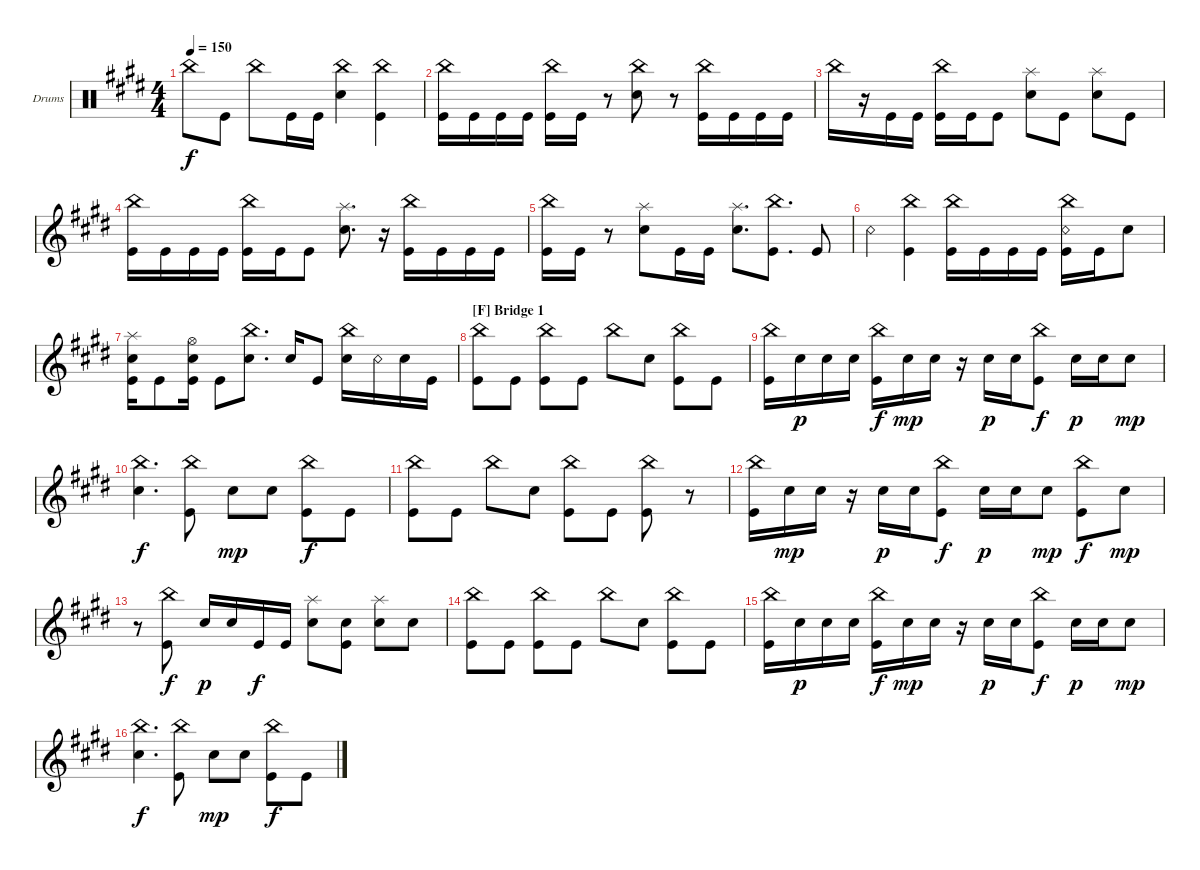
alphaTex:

\bracketExtendMode groupsimilarinstruments
\firstSystemTrackNameOrientation horizontal
\otherSystemsTrackNameOrientation horizontal
\track ("Drums" "Drums") {instrument percussion}
\staff {score}
\articulation defaults
\ts (4 4)
\tempo 150
\clef neutral
\ks e "China (hit)".8{dy f} "Kick (hit)".8 "China (hit)".8 "Kick (hit)".16 "Kick (hit)".16
("China (hit)" "Snare (hit) 2").4 ("China (hit)" "Kick (hit)").4 |
("Kick (hit)" "China (hit)").16 "Kick (hit)".16 "Kick (hit)".16 "Kick (hit)".16 ("Kick (hit)" "China (hit)").16 "Kick (hit)".16 r.8 ("Snare (hit) 2" "China (hit)").8 r.8 ("Kick (hit)" "China (hit)").16 "Kick (hit)".16 "Kick (hit)".16 "Kick (hit)".16 |
"China (hit)".16 r.16 "Kick (hit)".16 "Kick (hit)".16 ("Kick (hit)" "China (hit)").16 "Kick (hit)".16 "Kick (hit)".8 ("Snare (hit) 2" "Splash (hit)").8 "Kick (hit)".8 ("Snare (hit) 2" "Splash (hit)").8 "Kick (hit)".8 |
\clef g2
("Kick (hit)" "China (hit)").16 "Kick (hit)".16 "Kick (hit)".16 "Kick (hit)".16 ("Kick (hit)" "China (hit)").16 "Kick (hit)".16 "Kick (hit)".8 ("Snare (hit) 2" "Splash (hit)").8{d} r.16 ("Kick (hit)" "China (hit)").16 "Kick (hit)".16 "Kick (hit)".16 "Kick (hit)".16 |
("Kick (hit)" "China (hit)").16 "Kick (hit)".16 r.8 ("Snare (hit) 2" "Splash (hit)").8 "Kick (hit)".16 "Kick (hit)".16 ("Snare (hit) 2" "Splash (hit)").8{d} ("Kick (hit)" "China (hit)").8{d} "Kick (hit)".8 |
"Snare (rim shot)".4 ("Kick (hit)" "China (hit)").4 ("Kick (hit)" "China (hit)").16 "Kick (hit)".16 "Kick (hit)".16 "Kick (hit)".16 ("Kick (hit)" "China (hit)" "Snare (rim shot)").16 "Kick (hit)".16 "Snare (hit) 2".8 |
("Snare (hit) 2" "Splash (hit)" "Kick (hit)").16 "Kick (hit)".8 ("Snare (hit) 2" "Hi-Hat (open)" "Kick (hit)").16 "Kick (hit)".8 ("Snare (hit) 2" "China (hit)").8{d} "Snare (hit) 2".16 "Kick (hit)".8 ("Snare (hit) 2" "China (hit)").16 "Snare (rim shot)".16 "Snare (hit) 2".16 "Kick (hit)".16 |
\section ("F" "Bridge 1")
\scale
0.365079 ("Kick (hit)" "China (hit)").8 "Kick (hit)".8 ("Kick (hit)" "China (hit)").8 "Kick (hit)".8 "China (hit)".8 "Snare (hit) 2".8 ("Kick (hit)" "China (hit)").8 "Kick (hit)".8 |
\scale
0.301587 ("Kick (hit)" "China (hit)").16 "Snare (hit) 2".16{dy p} "Snare (hit) 2".16 "Snare (hit) 2".16 ("Kick (hit)" "China (hit)").16{dy f} "Snare (hit) 2".16{dy mp} "Snare (hit) 2".16 r.16 "Snare (hit) 2".16{dy p} "Snare (hit) 2".16 ("Kick (hit)" "China (hit)").8{dy f} "Snare (hit) 2".16{dy p} "Snare (hit) 2".16 "Snare (hit) 2".8{dy mp} |
\scale
0.333333 ("China (hit)" "Snare (hit) 2").4{d dy f} ("Kick (hit)" "China (hit)").8 "Snare (hit) 2".8{dy mp} "Snare (hit) 2".8 ("Kick (hit)" "China (hit)").8{dy f} "Kick (hit)".8 |
\scale
0.333333 ("Kick (hit)" "China (hit)").8 "Kick (hit)".8 "China (hit)".8 "Snare (hit) 2".8 ("Kick (hit)" "China (hit)").8 "Kick (hit)".8 ("Kick (hit)" "China (hit)").8 r.8 |
\scale
0.333333 ("Kick (hit)" "China (hit)").16 "Snare (hit) 2".16{dy mp} "Snare (hit) 2".16 r.16 "Snare (hit) 2".16{dy p} "Snare (hit) 2".16 ("Kick (hit)" "China (hit)").8{dy f} "Snare (hit) 2".16{dy p} "Snare (hit) 2".16 "Snare (hit) 2".8{dy mp} ("Kick (hit)" "China (hit)").8{dy f} "Snare (hit) 2".8{dy mp} |
\scale
0.184751 r.8 ("Kick (hit)" "China (hit)").8{dy f} "Snare (hit) 2".16{dy p} "Snare (hit) 2".16 "Kick (hit)".16{dy f} "Kick (hit)".16 ("Snare (hit) 2" "Splash (hit)").8 ("Snare (hit) 2" "Kick (hit)").8 ("Snare (hit) 2" "Splash (hit)").8 "Snare (hit) 2".8 |
("Kick (hit)" "China (hit)").8 "Kick (hit)".8 ("Kick (hit)" "China (hit)").8 "Kick (hit)".8 "China (hit)".8 "Snare (hit) 2".8 ("Kick (hit)" "China (hit)").8 "Kick (hit)".8 |
("Kick (hit)" "China (hit)").16 "Snare (hit) 2".16{dy p} "Snare (hit) 2".16 "Snare (hit) 2".16 ("Kick (hit)" "China (hit)").16{dy f} "Snare (hit) 2".16{dy mp} "Snare (hit) 2".16 r.16 "Snare (hit) 2".16{dy p} "Snare (hit) 2".16 ("Kick (hit)" "China (hit)").8{dy f} "Snare (hit) 2".16{dy p} "Snare (hit) 2".16 "Snare (hit) 2".8{dy mp} |
("China (hit)" "Snare (hit) 2").4{d dy f} ("Kick (hit)" "China (hit)").8 "Snare (hit) 2".8{dy mp} "Snare (hit) 2".8 ("Kick (hit)" "China (hit)").8{dy f} "Kick (hit)".8
